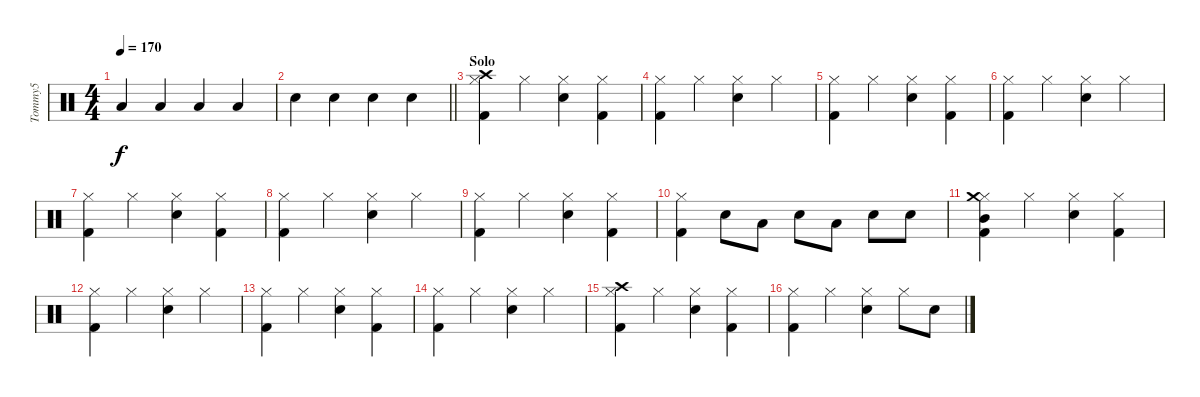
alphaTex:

\track ("Tommy5" "Tommy5") {instrument percussion}
\staff {score}
\articulation defaults
\ts (4 4)
\tempo 170
\clef neutral
\ks c "Low Tom (hit)".4{dy f} "Low Tom (hit)".4 "Low Tom (hit)".4 "Low Tom (hit)".4
|
\barLineRight lightlight "Electric Snare (hit)".4 "Electric Snare (hit)".4 "Electric Snare (hit)".4 "Electric Snare (hit)".4
|
\section ("" "Solo")
("Hi-Hat (closed)" "Kick (hit) 2" "Crash high (hit)").4 "Hi-Hat (closed)".4 ("Hi-Hat (closed)" "Electric Snare (hit)").4 ("Hi-Hat (closed)" "Kick (hit) 2").4 |
("Hi-Hat (closed)" "Kick (hit) 2").4 "Hi-Hat (closed)".4 ("Hi-Hat (closed)" "Electric Snare (hit)").4 "Hi-Hat (closed)".4 |
("Hi-Hat (closed)" "Kick (hit) 2").4 "Hi-Hat (closed)".4 ("Hi-Hat (closed)" "Electric Snare (hit)").4 ("Hi-Hat (closed)" "Kick (hit) 2").4 |
("Hi-Hat (closed)" "Kick (hit) 2").4 "Hi-Hat (closed)".4 ("Hi-Hat (closed)" "Electric Snare (hit)").4 "Hi-Hat (closed)".4 |
("Hi-Hat (closed)" "Kick (hit) 2").4 "Hi-Hat (closed)".4 ("Hi-Hat (closed)" "Electric Snare (hit)").4 ("Hi-Hat (closed)" "Kick (hit) 2").4 |
("Hi-Hat (closed)" "Kick (hit) 2").4 "Hi-Hat (closed)".4 ("Hi-Hat (closed)" "Electric Snare (hit)").4 "Hi-Hat (closed)".4 |
("Hi-Hat (closed)" "Kick (hit) 2").4 "Hi-Hat (closed)".4 ("Hi-Hat (closed)" "Electric Snare (hit)").4 ("Hi-Hat (closed)" "Kick (hit) 2").4 |
("Hi-Hat (closed)" "Kick (hit) 2").4 "Snare (hit) 2".8 "Low Tom (hit)".8 "Electric Snare (hit)".8 "Low Tom (hit)".8 "Snare (hit) 2".8 "Electric Snare (hit)".8 |
("Hi-Hat (closed)" "Kick (hit) 2" "Mid Tom (hit)" "Crash medium (hit)").4 "Hi-Hat (closed)".4 ("Hi-Hat (closed)" "Electric Snare (hit)").4 ("Hi-Hat (closed)" "Kick (hit) 2").4 |
("Hi-Hat (closed)" "Kick (hit) 2").4 "Hi-Hat (closed)".4 ("Hi-Hat (closed)" "Electric Snare (hit)").4 "Hi-Hat (closed)".4 |
("Hi-Hat (closed)" "Kick (hit) 2").4 "Hi-Hat (closed)".4 ("Hi-Hat (closed)" "Electric Snare (hit)").4 ("Hi-Hat (closed)" "Kick (hit) 2").4 |
("Hi-Hat (closed)" "Kick (hit) 2").4 "Hi-Hat (closed)".4 ("Hi-Hat (closed)" "Electric Snare (hit)").4 "Hi-Hat (closed)".4 |
("Hi-Hat (closed)" "Kick (hit) 2" "Crash high (hit)").4 "Hi-Hat (closed)".4 ("Hi-Hat (closed)" "Electric Snare (hit)").4 ("Hi-Hat (closed)" "Kick (hit) 2").4 |
("Hi-Hat (closed)" "Kick (hit) 2").4 "Hi-Hat (closed)".4 ("Hi-Hat (closed)" "Electric Snare (hit)").4 "Hi-Hat (closed)".8 "Electric Snare (hit)".8
